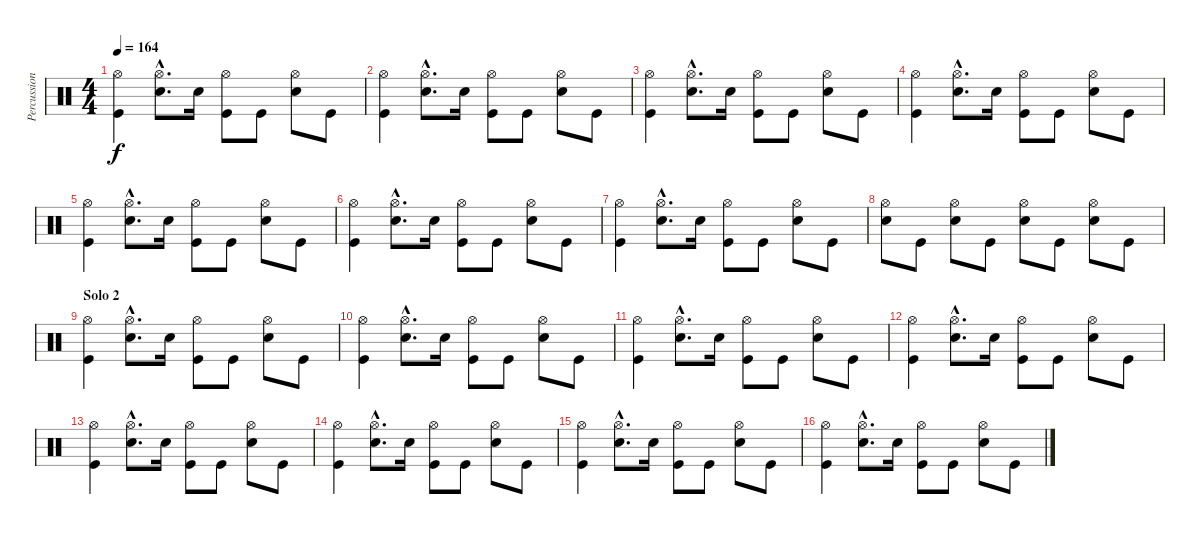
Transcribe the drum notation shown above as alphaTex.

\track ("Percussion" "Percussion") {instrument percussion}
\staff {score}
\articulation defaults
\ts (4 4)
\tempo 164
\clef neutral
\ks c
("Hi-Hat (open)" "Kick (hit)").4{dy f} ("Hi-Hat (open)"{hac} "Electric Snare (hit)"{hac}).8{d} "Electric Snare (hit)".16 ("Hi-Hat (open)" "Kick (hit)").8 "Kick (hit)".8 ("Hi-Hat (open)" "Electric Snare (hit)").8 "Kick (hit)".8 |
("Hi-Hat (open)" "Kick (hit)").4 ("Hi-Hat (open)"{hac} "Electric Snare (hit)"{hac}).8{d} "Electric Snare (hit)".16 ("Hi-Hat (open)" "Kick (hit)").8 "Kick (hit)".8 ("Hi-Hat (open)" "Electric Snare (hit)").8 "Kick (hit)".8 |
("Hi-Hat (open)" "Kick (hit)").4 ("Hi-Hat (open)"{hac} "Electric Snare (hit)"{hac}).8{d} "Electric Snare (hit)".16 ("Hi-Hat (open)" "Kick (hit)").8 "Kick (hit)".8 ("Hi-Hat (open)" "Electric Snare (hit)").8 "Kick (hit)".8 |
("Hi-Hat (open)" "Kick (hit)").4 ("Hi-Hat (open)"{hac} "Electric Snare (hit)"{hac}).8{d} "Electric Snare (hit)".16 ("Hi-Hat (open)" "Kick (hit)").8 "Kick (hit)".8 ("Hi-Hat (open)" "Electric Snare (hit)").8 "Kick (hit)".8 |
("Hi-Hat (open)" "Kick (hit)").4 ("Hi-Hat (open)"{hac} "Electric Snare (hit)"{hac}).8{d} "Electric Snare (hit)".16 ("Hi-Hat (open)" "Kick (hit)").8 "Kick (hit)".8 ("Hi-Hat (open)" "Electric Snare (hit)").8 "Kick (hit)".8 |
("Hi-Hat (open)" "Kick (hit)").4 ("Hi-Hat (open)"{hac} "Electric Snare (hit)"{hac}).8{d} "Electric Snare (hit)".16 ("Hi-Hat (open)" "Kick (hit)").8 "Kick (hit)".8 ("Hi-Hat (open)" "Electric Snare (hit)").8 "Kick (hit)".8 |
("Hi-Hat (open)" "Kick (hit)").4 ("Hi-Hat (open)"{hac} "Electric Snare (hit)"{hac}).8{d} "Electric Snare (hit)".16 ("Hi-Hat (open)" "Kick (hit)").8 "Kick (hit)".8 ("Hi-Hat (open)" "Electric Snare (hit)").8 "Kick (hit)".8 |
("Hi-Hat (open)" "Electric Snare (hit)").8 "Kick (hit)".8 ("Hi-Hat (open)" "Electric Snare (hit)").8 "Kick (hit)".8 ("Hi-Hat (open)" "Electric Snare (hit)").8 "Kick (hit)".8 ("Hi-Hat (open)" "Electric Snare (hit)").8 "Kick (hit)".8 |
\section ("" "Solo 2")
("Hi-Hat (open)" "Kick (hit)").4 ("Hi-Hat (open)"{hac} "Electric Snare (hit)"{hac}).8{d} "Electric Snare (hit)".16 ("Hi-Hat (open)" "Kick (hit)").8 "Kick (hit)".8 ("Hi-Hat (open)" "Electric Snare (hit)").8 "Kick (hit)".8 |
("Hi-Hat (open)" "Kick (hit)").4 ("Hi-Hat (open)"{hac} "Electric Snare (hit)"{hac}).8{d} "Electric Snare (hit)".16 ("Hi-Hat (open)" "Kick (hit)").8 "Kick (hit)".8 ("Hi-Hat (open)" "Electric Snare (hit)").8 "Kick (hit)".8 |
("Hi-Hat (open)" "Kick (hit)").4 ("Hi-Hat (open)"{hac} "Electric Snare (hit)"{hac}).8{d} "Electric Snare (hit)".16 ("Hi-Hat (open)" "Kick (hit)").8 "Kick (hit)".8 ("Hi-Hat (open)" "Electric Snare (hit)").8 "Kick (hit)".8 |
("Hi-Hat (open)" "Kick (hit)").4 ("Hi-Hat (open)"{hac} "Electric Snare (hit)"{hac}).8{d} "Electric Snare (hit)".16 ("Hi-Hat (open)" "Kick (hit)").8 "Kick (hit)".8 ("Hi-Hat (open)" "Electric Snare (hit)").8 "Kick (hit)".8 |
("Hi-Hat (open)" "Kick (hit)").4 ("Hi-Hat (open)"{hac} "Electric Snare (hit)"{hac}).8{d} "Electric Snare (hit)".16 ("Hi-Hat (open)" "Kick (hit)").8 "Kick (hit)".8 ("Hi-Hat (open)" "Electric Snare (hit)").8 "Kick (hit)".8 |
("Hi-Hat (open)" "Kick (hit)").4 ("Hi-Hat (open)"{hac} "Electric Snare (hit)"{hac}).8{d} "Electric Snare (hit)".16 ("Hi-Hat (open)" "Kick (hit)").8 "Kick (hit)".8 ("Hi-Hat (open)" "Electric Snare (hit)").8 "Kick (hit)".8 |
("Hi-Hat (open)" "Kick (hit)").4 ("Hi-Hat (open)"{hac} "Electric Snare (hit)"{hac}).8{d} "Electric Snare (hit)".16 ("Hi-Hat (open)" "Kick (hit)").8 "Kick (hit)".8 ("Hi-Hat (open)" "Electric Snare (hit)").8 "Kick (hit)".8 |
("Hi-Hat (open)" "Kick (hit)").4 ("Hi-Hat (open)"{hac} "Electric Snare (hit)"{hac}).8{d} "Electric Snare (hit)".16 ("Hi-Hat (open)" "Kick (hit)").8 "Kick (hit)".8 ("Hi-Hat (open)" "Electric Snare (hit)").8 "Kick (hit)".8
